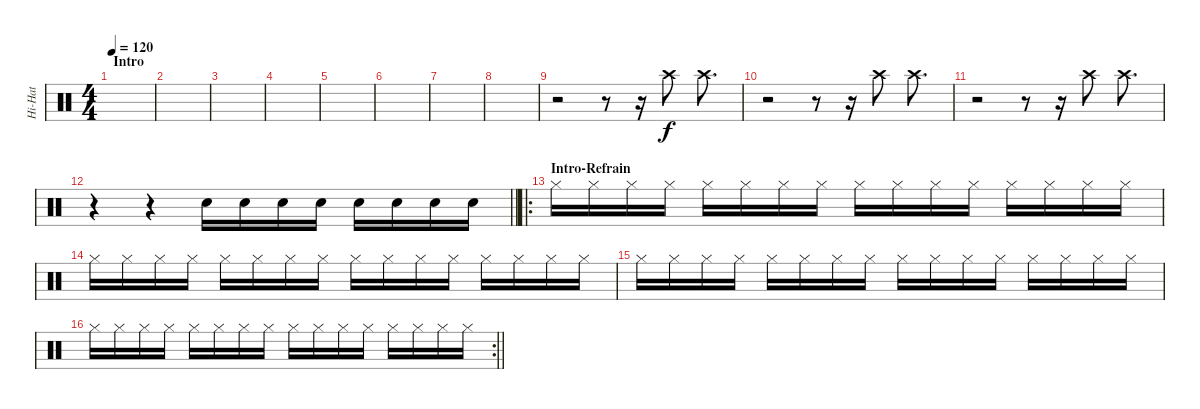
\track ("Hi-Hat" "Hi-Hat") {instrument percussion}
\staff {score}
\articulation defaults
\ts (4 4)
\section ("" "Intro")
\tempo 120
\clef neutral
\ks c
|
|
|
|
|
|
|
|
r.2 r.8 r.16 "Crash high (hit)".8 "Crash high (hit)".8{d} |
r.2 r.8 r.16 "Crash high (hit)".8 "Crash high (hit)".8{d} |
r.2 r.8 r.16 "Crash high (hit)".8 "Crash high (hit)".8{d} |
\barLineRight lightlight
r.4 r.4 "Electric Snare (hit)".16 "Electric Snare (hit)".16 "Electric Snare (hit)".16 "Electric Snare (hit)".16 "Electric Snare (hit)".16 "Electric Snare (hit)".16 "Electric Snare (hit)".16 "Electric Snare (hit)".16 |
\ro
\section ("" "Intro-Refrain")
"Hi-Hat (closed)".16 "Hi-Hat (closed)".16 "Hi-Hat (closed)".16 "Hi-Hat (closed)".16 "Hi-Hat (closed)".16 "Hi-Hat (closed)".16 "Hi-Hat (closed)".16 "Hi-Hat (closed)".16 "Hi-Hat (closed)".16 "Hi-Hat (closed)".16 "Hi-Hat (closed)".16 "Hi-Hat (closed)".16 "Hi-Hat (closed)".16 "Hi-Hat (closed)".16 "Hi-Hat (closed)".16 "Hi-Hat (closed)".16 |
"Hi-Hat (closed)".16 "Hi-Hat (closed)".16 "Hi-Hat (closed)".16 "Hi-Hat (closed)".16 "Hi-Hat (closed)".16 "Hi-Hat (closed)".16 "Hi-Hat (closed)".16 "Hi-Hat (closed)".16 "Hi-Hat (closed)".16 "Hi-Hat (closed)".16 "Hi-Hat (closed)".16 "Hi-Hat (closed)".16 "Hi-Hat (closed)".16 "Hi-Hat (closed)".16 "Hi-Hat (closed)".16 "Hi-Hat (closed)".16 |
"Hi-Hat (closed)".16 "Hi-Hat (closed)".16 "Hi-Hat (closed)".16 "Hi-Hat (closed)".16 "Hi-Hat (closed)".16 "Hi-Hat (closed)".16 "Hi-Hat (closed)".16 "Hi-Hat (closed)".16 "Hi-Hat (closed)".16 "Hi-Hat (closed)".16 "Hi-Hat (closed)".16 "Hi-Hat (closed)".16 "Hi-Hat (closed)".16 "Hi-Hat (closed)".16 "Hi-Hat (closed)".16 "Hi-Hat (closed)".16 |
\rc 2
\barLineRight lightlight "Hi-Hat (closed)".16 "Hi-Hat (closed)".16 "Hi-Hat (closed)".16 "Hi-Hat (closed)".16 "Hi-Hat (closed)".16 "Hi-Hat (closed)".16 "Hi-Hat (closed)".16 "Hi-Hat (closed)".16 "Hi-Hat (closed)".16 "Hi-Hat (closed)".16 "Hi-Hat (closed)".16 "Hi-Hat (closed)".16 "Hi-Hat (closed)".16 "Hi-Hat (closed)".16 "Hi-Hat (closed)".16 "Hi-Hat (closed)".16
